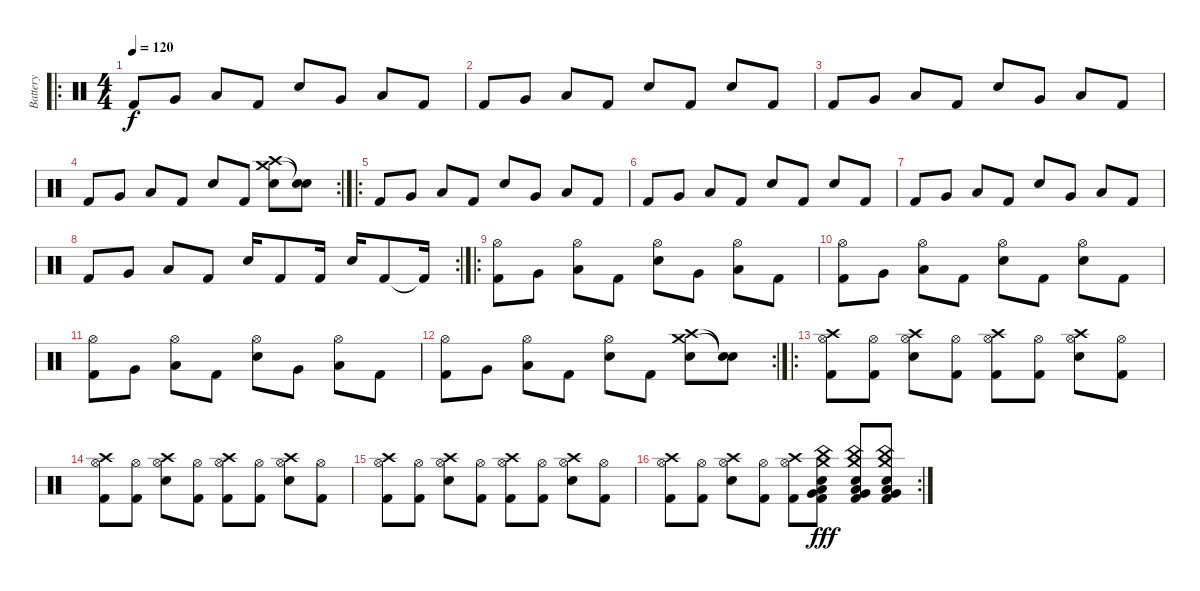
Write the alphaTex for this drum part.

\track ("Battery" "Battery") {instrument percussion}
\staff {score}
\articulation defaults
\ro
\ts (4 4)
\tempo 120
\clef neutral
\ks c "Kick (hit) 2".8{dy f} "Very Low Tom (hit)".8 "Low Tom (hit)".8 "Kick (hit) 2".8 "Electric Snare (hit)".8 "Very Low Tom (hit)".8 "Low Tom (hit)".8 "Kick (hit) 2".8
|
"Kick (hit) 2".8 "Very Low Tom (hit)".8 "Low Tom (hit)".8 "Kick (hit) 2".8 "Electric Snare (hit)".8 "Kick (hit) 2".8 "Electric Snare (hit)".8 "Kick (hit) 2".8 |
"Kick (hit) 2".8 "Very Low Tom (hit)".8 "Low Tom (hit)".8 "Kick (hit) 2".8 "Electric Snare (hit)".8 "Very Low Tom (hit)".8 "Low Tom (hit)".8 "Kick (hit) 2".8 |
\rc 2 "Kick (hit) 2".8 "Very Low Tom (hit)".8 "Low Tom (hit)".8 "Kick (hit) 2".8 "Electric Snare (hit)".8 "Kick (hit) 2".8
("Crash high (hit)" "Crash medium (hit)" "Electric Snare (hit)").8 ("Snare (hit)"{t} "Snare (hit)"{t}).8 |
\ro "Kick (hit) 2".8 "Very Low Tom (hit)".8 "Low Tom (hit)".8 "Kick (hit) 2".8 "Electric Snare (hit)".8 "Very Low Tom (hit)".8 "Low Tom (hit)".8 "Kick (hit) 2".8
|
"Kick (hit) 2".8 "Very Low Tom (hit)".8 "Low Tom (hit)".8 "Kick (hit) 2".8 "Electric Snare (hit)".8 "Kick (hit) 2".8 "Electric Snare (hit)".8 "Kick (hit) 2".8 |
"Kick (hit) 2".8 "Very Low Tom (hit)".8 "Low Tom (hit)".8 "Kick (hit) 2".8 "Electric Snare (hit)".8 "Very Low Tom (hit)".8 "Low Tom (hit)".8 "Kick (hit) 2".8 |
\rc 2 "Kick (hit) 2".8 "Very Low Tom (hit)".8 "Low Tom (hit)".8 "Kick (hit) 2".8 "Electric Snare (hit)".16 "Kick (hit) 2".8 "Kick (hit) 2".16 "Electric Snare (hit)".16 "Kick (hit) 2".8 "Kick (hit) 2"{t}.16
|
\ro
("Hi-Hat (open)" "Kick (hit) 2").8 "Very Low Tom (hit)".8 ("Hi-Hat (open)" "Low Tom (hit)").8 "Kick (hit) 2".8 ("Hi-Hat (open)" "Electric Snare (hit)").8 "Very Low Tom (hit)".8 ("Hi-Hat (open)" "Low Tom (hit)").8 "Kick (hit) 2".8 |
("Hi-Hat (open)" "Kick (hit) 2").8 "Very Low Tom (hit)".8 ("Hi-Hat (open)" "Low Tom (hit)").8 "Kick (hit) 2".8 ("Hi-Hat (open)" "Electric Snare (hit)").8 "Kick (hit) 2".8 ("Hi-Hat (open)" "Electric Snare (hit)").8 "Kick (hit) 2".8 |
("Hi-Hat (open)" "Kick (hit) 2").8 "Very Low Tom (hit)".8 ("Hi-Hat (open)" "Low Tom (hit)").8 "Kick (hit) 2".8 ("Hi-Hat (open)" "Electric Snare (hit)").8 "Very Low Tom (hit)".8 ("Hi-Hat (open)" "Low Tom (hit)").8 "Kick (hit) 2".8 |
\rc 2
("Hi-Hat (open)" "Kick (hit) 2").8 "Very Low Tom (hit)".8 ("Hi-Hat (open)" "Low Tom (hit)").8 "Kick (hit) 2".8 ("Hi-Hat (open)" "Electric Snare (hit)").8 "Kick (hit) 2".8 ("Crash high (hit)" "Crash medium (hit)" "Electric Snare (hit)").8 ("Snare (hit)"{t} "Snare (hit)"{t}).8 |
\ro
("Crash high (hit)" "Hi-Hat (open)" "Kick (hit) 2").8 ("Hi-Hat (open)" "Kick (hit) 2").8 ("Crash high (hit)" "Hi-Hat (open)" "Electric Snare (hit)").8 ("Hi-Hat (open)" "Kick (hit) 2").8 ("Crash high (hit)" "Hi-Hat (open)" "Kick (hit) 2").8 ("Hi-Hat (open)" "Kick (hit) 2").8 ("Crash high (hit)" "Hi-Hat (open)" "Electric Snare (hit)").8 ("Hi-Hat (open)" "Kick (hit) 2").8 |
("Crash high (hit)" "Hi-Hat (open)" "Kick (hit) 2").8 ("Hi-Hat (open)" "Kick (hit) 2").8 ("Crash high (hit)" "Hi-Hat (open)" "Electric Snare (hit)").8 ("Hi-Hat (open)" "Kick (hit) 2").8 ("Crash high (hit)" "Hi-Hat (open)" "Kick (hit) 2").8 ("Hi-Hat (open)" "Kick (hit) 2").8 ("Crash high (hit)" "Hi-Hat (open)" "Electric Snare (hit)").8 ("Hi-Hat (open)" "Kick (hit) 2").8 |
("Crash high (hit)" "Hi-Hat (open)" "Kick (hit) 2").8 ("Hi-Hat (open)" "Kick (hit) 2").8 ("Crash high (hit)" "Hi-Hat (open)" "Electric Snare (hit)").8 ("Hi-Hat (open)" "Kick (hit) 2").8 ("Crash high (hit)" "Hi-Hat (open)" "Kick (hit) 2").8 ("Hi-Hat (open)" "Kick (hit) 2").8 ("Crash high (hit)" "Hi-Hat (open)" "Electric Snare (hit)").8 ("Hi-Hat (open)" "Kick (hit) 2").8 |
\rc 2
("Crash high (hit)" "Hi-Hat (open)" "Kick (hit) 2").8 ("Hi-Hat (open)" "Kick (hit) 2").8 ("Crash high (hit)" "Hi-Hat (open)" "Electric Snare (hit)").8 ("Hi-Hat (open)" "Kick (hit) 2").8 ("Crash high (hit)" "Hi-Hat (open)" "Kick (hit) 2").8 ("China (hit)" "Crash medium (hit)" "Kick (hit) 2" "Low Floor Tom (hit)" "Very Low Tom (hit)" "Electric Snare (hit)").8{dy fff} ("China (hit)" "Crash medium (hit)" "Kick (hit) 2" "Low Floor Tom (hit)" "Very Low Tom (hit)" "Electric Snare (hit)").8 ("China (hit)" "Crash medium (hit)" "Kick (hit) 2" "Low Floor Tom (hit)" "Very Low Tom (hit)" "Electric Snare (hit)").8
